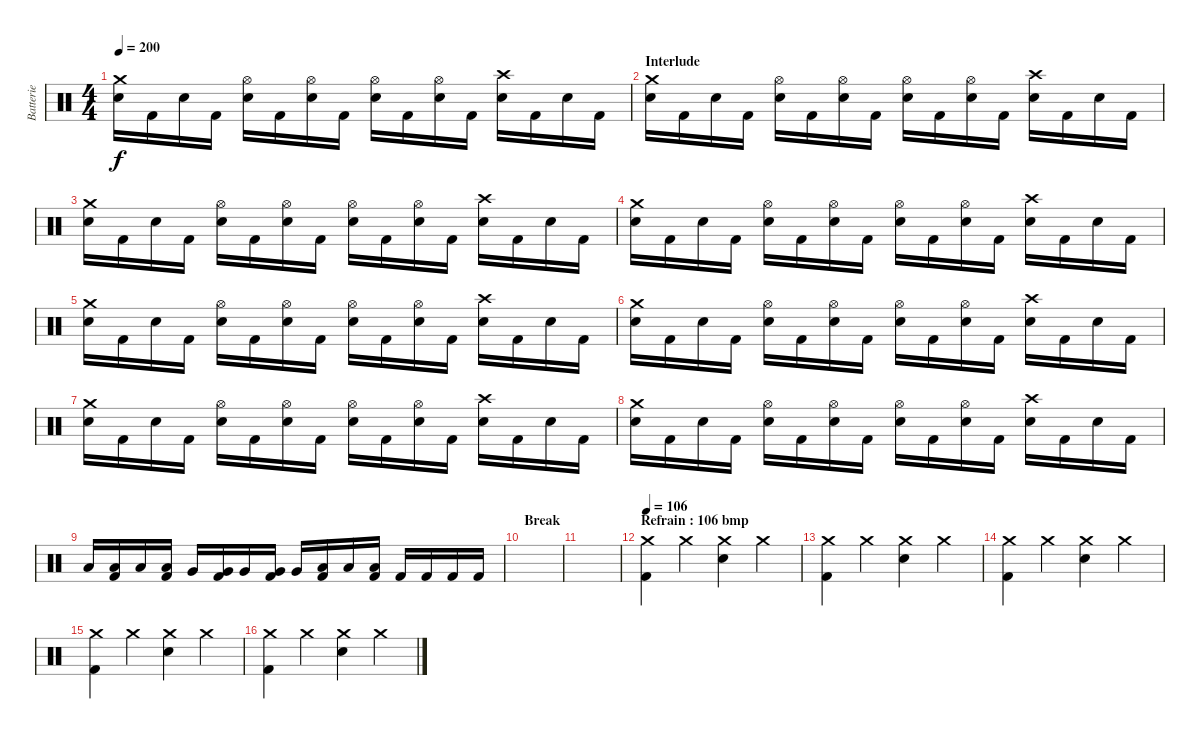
\track ("Batterie" "Batterie") {instrument percussion}
\staff {score}
\articulation defaults
\ts (4 4)
\tempo 200
\clef neutral
\ks c
("Snare (hit) 2" "Crash medium (hit)").16{dy f} "Kick (hit) 2".16 "Snare (hit) 2".16 "Kick (hit) 2".16 ("Snare (hit) 2" "Hi-Hat (open)").16 "Kick (hit) 2".16 ("Snare (hit) 2" "Hi-Hat (open)").16 "Kick (hit) 2".16 ("Snare (hit) 2" "Hi-Hat (open)").16 "Kick (hit) 2".16 ("Snare (hit) 2" "Hi-Hat (open)").16 "Kick (hit) 2".16 ("Snare (hit) 2" "Crash high (hit)").16 "Kick (hit) 2".16 "Snare (hit) 2".16 "Kick (hit) 2".16 |
\section ("" "Interlude")
("Snare (hit) 2" "Crash medium (hit)").16 "Kick (hit) 2".16 "Snare (hit) 2".16 "Kick (hit) 2".16 ("Snare (hit) 2" "Hi-Hat (open)").16 "Kick (hit) 2".16 ("Snare (hit) 2" "Hi-Hat (open)").16 "Kick (hit) 2".16 ("Snare (hit) 2" "Hi-Hat (open)").16 "Kick (hit) 2".16 ("Snare (hit) 2" "Hi-Hat (open)").16 "Kick (hit) 2".16 ("Snare (hit) 2" "Crash high (hit)").16 "Kick (hit) 2".16 "Snare (hit) 2".16 "Kick (hit) 2".16 |
("Snare (hit) 2" "Crash medium (hit)").16 "Kick (hit) 2".16 "Snare (hit) 2".16 "Kick (hit) 2".16 ("Snare (hit) 2" "Hi-Hat (open)").16 "Kick (hit) 2".16 ("Snare (hit) 2" "Hi-Hat (open)").16 "Kick (hit) 2".16 ("Snare (hit) 2" "Hi-Hat (open)").16 "Kick (hit) 2".16 ("Snare (hit) 2" "Hi-Hat (open)").16 "Kick (hit) 2".16 ("Snare (hit) 2" "Crash high (hit)").16 "Kick (hit) 2".16 "Snare (hit) 2".16 "Kick (hit) 2".16 |
("Snare (hit) 2" "Crash medium (hit)").16 "Kick (hit) 2".16 "Snare (hit) 2".16 "Kick (hit) 2".16 ("Snare (hit) 2" "Hi-Hat (open)").16 "Kick (hit) 2".16 ("Snare (hit) 2" "Hi-Hat (open)").16 "Kick (hit) 2".16 ("Snare (hit) 2" "Hi-Hat (open)").16 "Kick (hit) 2".16 ("Snare (hit) 2" "Hi-Hat (open)").16 "Kick (hit) 2".16 ("Snare (hit) 2" "Crash high (hit)").16 "Kick (hit) 2".16 "Snare (hit) 2".16 "Kick (hit) 2".16 |
("Snare (hit) 2" "Crash medium (hit)").16 "Kick (hit) 2".16 "Snare (hit) 2".16 "Kick (hit) 2".16 ("Snare (hit) 2" "Hi-Hat (open)").16 "Kick (hit) 2".16 ("Snare (hit) 2" "Hi-Hat (open)").16 "Kick (hit) 2".16 ("Snare (hit) 2" "Hi-Hat (open)").16 "Kick (hit) 2".16 ("Snare (hit) 2" "Hi-Hat (open)").16 "Kick (hit) 2".16 ("Snare (hit) 2" "Crash high (hit)").16 "Kick (hit) 2".16 "Snare (hit) 2".16 "Kick (hit) 2".16 |
("Snare (hit) 2" "Crash medium (hit)").16 "Kick (hit) 2".16 "Snare (hit) 2".16 "Kick (hit) 2".16 ("Snare (hit) 2" "Hi-Hat (open)").16 "Kick (hit) 2".16 ("Snare (hit) 2" "Hi-Hat (open)").16 "Kick (hit) 2".16 ("Snare (hit) 2" "Hi-Hat (open)").16 "Kick (hit) 2".16 ("Snare (hit) 2" "Hi-Hat (open)").16 "Kick (hit) 2".16 ("Snare (hit) 2" "Crash high (hit)").16 "Kick (hit) 2".16 "Snare (hit) 2".16 "Kick (hit) 2".16 |
("Snare (hit) 2" "Crash medium (hit)").16 "Kick (hit) 2".16 "Snare (hit) 2".16 "Kick (hit) 2".16 ("Snare (hit) 2" "Hi-Hat (open)").16 "Kick (hit) 2".16 ("Snare (hit) 2" "Hi-Hat (open)").16 "Kick (hit) 2".16 ("Snare (hit) 2" "Hi-Hat (open)").16 "Kick (hit) 2".16 ("Snare (hit) 2" "Hi-Hat (open)").16 "Kick (hit) 2".16 ("Snare (hit) 2" "Crash high (hit)").16 "Kick (hit) 2".16 "Snare (hit) 2".16 "Kick (hit) 2".16 |
("Snare (hit) 2" "Crash medium (hit)").16 "Kick (hit) 2".16 "Snare (hit) 2".16 "Kick (hit) 2".16 ("Snare (hit) 2" "Hi-Hat (open)").16 "Kick (hit) 2".16 ("Snare (hit) 2" "Hi-Hat (open)").16 "Kick (hit) 2".16 ("Snare (hit) 2" "Hi-Hat (open)").16 "Kick (hit) 2".16 ("Snare (hit) 2" "Hi-Hat (open)").16 "Kick (hit) 2".16 ("Snare (hit) 2" "Crash high (hit)").16 "Kick (hit) 2".16 "Snare (hit) 2".16 "Kick (hit) 2".16 |
"Low Tom (hit)".16 ("Low Tom (hit)" "Kick (hit) 2").16 "Low Tom (hit)".16 ("Low Tom (hit)" "Kick (hit) 2").16 "Very Low Tom (hit)".16 ("Very Low Tom (hit)" "Kick (hit) 2").16 "Very Low Tom (hit)".16 ("Very Low Tom (hit)" "Kick (hit) 2").16 "Very Low Tom (hit)".16 ("Low Floor Tom (hit)" "Kick (hit) 2").16 "Low Floor Tom (hit)".16 ("Low Floor Tom (hit)" "Kick (hit) 2").16 "Kick (hit) 2".16 "Kick (hit) 2".16 "Kick (hit) 2".16 "Kick (hit) 2".16 |
\section ("" "Break")
|
|
\section ("" "Refrain : 106 bmp")
\tempo 106
("Crash medium (hit)" "Kick (hit) 2").4 "Crash medium (hit)".4 ("Crash medium (hit)" "Snare (hit) 2").4 "Crash medium (hit)".4 |
("Crash medium (hit)" "Kick (hit) 2").4 "Crash medium (hit)".4 ("Crash medium (hit)" "Snare (hit) 2").4 "Crash medium (hit)".4 |
("Crash medium (hit)" "Kick (hit) 2").4 "Crash medium (hit)".4 ("Crash medium (hit)" "Snare (hit) 2").4 "Crash medium (hit)".4 |
("Crash medium (hit)" "Kick (hit) 2").4 "Crash medium (hit)".4 ("Crash medium (hit)" "Snare (hit) 2").4 "Crash medium (hit)".4 |
("Crash medium (hit)" "Kick (hit) 2").4 "Crash medium (hit)".4 ("Crash medium (hit)" "Snare (hit) 2").4 "Crash medium (hit)".4
